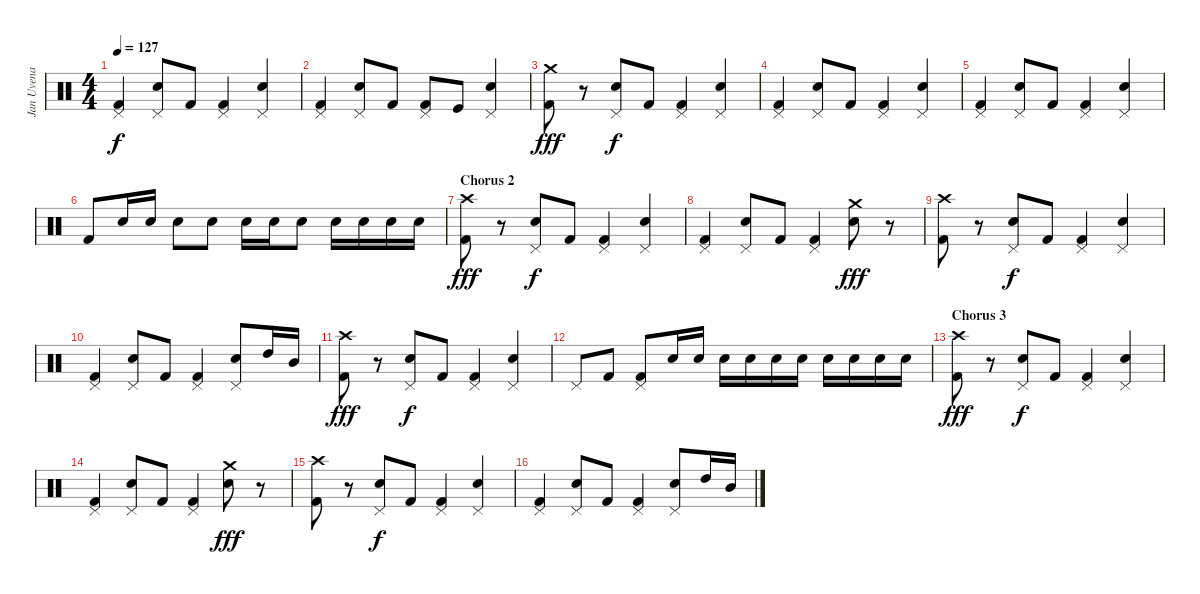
\track ("Jan Uvena" "Jan Uvena") {instrument percussion}
\staff {score}
\articulation defaults
\ts (4 4)
\tempo 127
\clef neutral
\ks c
("Pedal Hi-Hat (hit)" "Kick (hit) 2").4{dy f} ("Pedal Hi-Hat (hit)" "Snare (hit) 2").8 "Kick (hit) 2".8 ("Pedal Hi-Hat (hit)" "Kick (hit) 2").4 ("Pedal Hi-Hat (hit)" "Snare (hit) 2").4 |
("Pedal Hi-Hat (hit)" "Kick (hit) 2").4 ("Pedal Hi-Hat (hit)" "Snare (hit) 2").8 "Kick (hit) 2".8 ("Pedal Hi-Hat (hit)" "Kick (hit) 2").8 "Kick (hit)".8 ("Pedal Hi-Hat (hit)" "Snare (hit) 2").4 |
("Crash medium (hit)" "Kick (hit) 2").8{dy fff} r.8 ("Pedal Hi-Hat (hit)" "Snare (hit) 2").8{dy f} "Kick (hit) 2".8 ("Pedal Hi-Hat (hit)" "Kick (hit) 2").4 ("Pedal Hi-Hat (hit)" "Snare (hit) 2").4 |
("Pedal Hi-Hat (hit)" "Kick (hit) 2").4 ("Pedal Hi-Hat (hit)" "Snare (hit) 2").8 "Kick (hit) 2".8 ("Pedal Hi-Hat (hit)" "Kick (hit) 2").4 ("Pedal Hi-Hat (hit)" "Snare (hit) 2").4 |
("Pedal Hi-Hat (hit)" "Kick (hit) 2").4 ("Pedal Hi-Hat (hit)" "Snare (hit) 2").8 "Kick (hit) 2".8 ("Pedal Hi-Hat (hit)" "Kick (hit) 2").4 ("Pedal Hi-Hat (hit)" "Snare (hit) 2").4 |
"Kick (hit) 2".8 "Snare (hit) 2".16 "Snare (hit) 2".16 "Snare (hit) 2".8 "Snare (hit) 2".8 "Snare (hit) 2".16 "Snare (hit) 2".16 "Snare (hit) 2".8 "Snare (hit) 2".16 "Snare (hit) 2".16 "Snare (hit) 2".16 "Snare (hit) 2".16 |
\section ("" "Chorus 2")
("Crash high (hit)" "Kick (hit) 2").8{dy fff} r.8 ("Pedal Hi-Hat (hit)" "Snare (hit) 2").8{dy f} "Kick (hit) 2".8 ("Pedal Hi-Hat (hit)" "Kick (hit) 2").4 ("Pedal Hi-Hat (hit)" "Snare (hit) 2").4 |
("Pedal Hi-Hat (hit)" "Kick (hit) 2").4 ("Pedal Hi-Hat (hit)" "Snare (hit) 2").8 "Kick (hit) 2".8 ("Pedal Hi-Hat (hit)" "Kick (hit) 2").4 ("Crash medium (hit)" "Snare (hit) 2").8{dy fff} r.8 |
("Crash high (hit)" "Kick (hit) 2").8 r.8 ("Pedal Hi-Hat (hit)" "Snare (hit) 2").8{dy f} "Kick (hit) 2".8 ("Pedal Hi-Hat (hit)" "Kick (hit) 2").4 ("Pedal Hi-Hat (hit)" "Snare (hit) 2").4 |
("Pedal Hi-Hat (hit)" "Kick (hit) 2").4 ("Pedal Hi-Hat (hit)" "Snare (hit) 2").8 "Kick (hit) 2".8 ("Pedal Hi-Hat (hit)" "Kick (hit) 2").4 ("Pedal Hi-Hat (hit)" "Snare (hit) 2").8 "High Tom (hit)".16 "Mid Tom (hit)".16 |
("Crash high (hit)" "Kick (hit) 2").8{dy fff} r.8 ("Pedal Hi-Hat (hit)" "Snare (hit) 2").8{dy f} "Kick (hit) 2".8 ("Pedal Hi-Hat (hit)" "Kick (hit) 2").4 ("Pedal Hi-Hat (hit)" "Snare (hit) 2").4 |
"Pedal Hi-Hat (hit)".8 "Kick (hit) 2".8 ("Pedal Hi-Hat (hit)" "Kick (hit) 2").8 "Snare (hit) 2".16 "Snare (hit) 2".16 "Snare (hit) 2".16 "Snare (hit) 2".16 "Snare (hit) 2".16 "Snare (hit) 2".16 "Snare (hit) 2".16 "Snare (hit) 2".16 "Snare (hit) 2".16 "Snare (hit) 2".16 |
\section ("" "Chorus 3")
("Crash high (hit)" "Kick (hit) 2").8{dy fff} r.8 ("Pedal Hi-Hat (hit)" "Snare (hit) 2").8{dy f} "Kick (hit) 2".8 ("Pedal Hi-Hat (hit)" "Kick (hit) 2").4 ("Pedal Hi-Hat (hit)" "Snare (hit) 2").4 |
("Pedal Hi-Hat (hit)" "Kick (hit) 2").4 ("Pedal Hi-Hat (hit)" "Snare (hit) 2").8 "Kick (hit) 2".8 ("Pedal Hi-Hat (hit)" "Kick (hit) 2").4 ("Crash medium (hit)" "Snare (hit) 2").8{dy fff} r.8 |
("Crash high (hit)" "Kick (hit) 2").8 r.8 ("Pedal Hi-Hat (hit)" "Snare (hit) 2").8{dy f} "Kick (hit) 2".8 ("Pedal Hi-Hat (hit)" "Kick (hit) 2").4 ("Pedal Hi-Hat (hit)" "Snare (hit) 2").4 |
("Pedal Hi-Hat (hit)" "Kick (hit) 2").4 ("Pedal Hi-Hat (hit)" "Snare (hit) 2").8 "Kick (hit) 2".8 ("Pedal Hi-Hat (hit)" "Kick (hit) 2").4 ("Pedal Hi-Hat (hit)" "Snare (hit) 2").8 "High Tom (hit)".16 "Mid Tom (hit)".16
